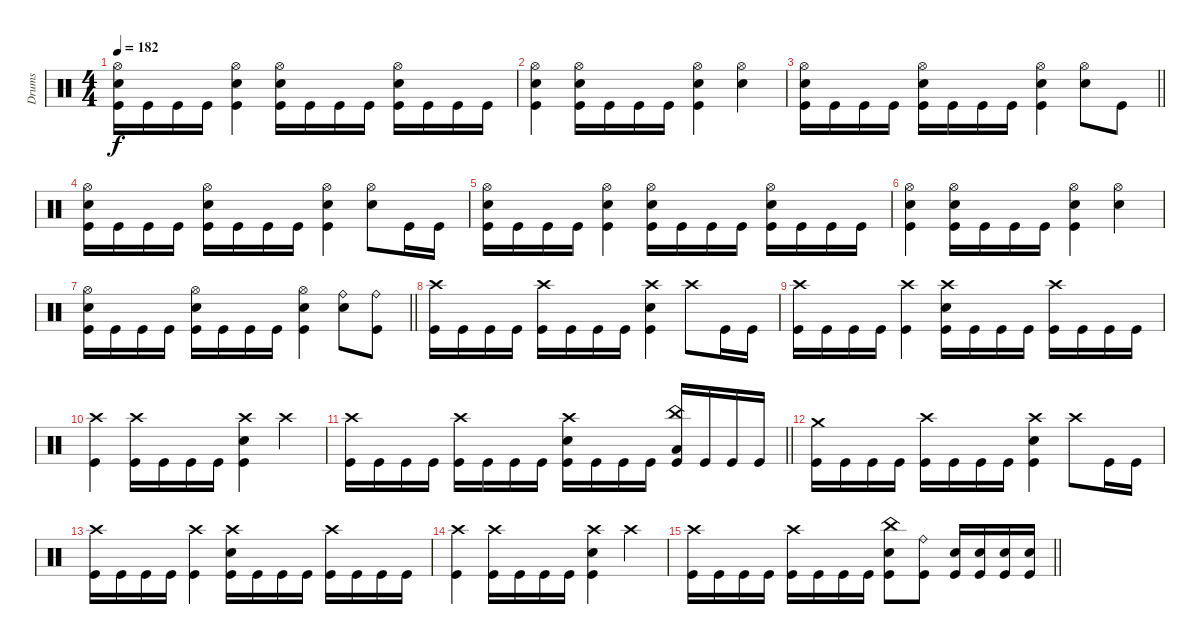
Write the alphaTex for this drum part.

\track ("Drums" "Drums") {instrument percussion}
\staff
\articulation defaults
\ts (4 4)
\tempo 182
\clef neutral
\ks c
("Hi-Hat (open)" "Electric Snare (hit)" "Kick (hit)").16{dy f} "Kick (hit)".16 "Kick (hit)".16 "Kick (hit)".16 ("Hi-Hat (open)" "Electric Snare (hit)" "Kick (hit)").4 ("Hi-Hat (open)" "Electric Snare (hit)" "Kick (hit)").16 "Kick (hit)".16 "Kick (hit)".16 "Kick (hit)".16 ("Hi-Hat (open)" "Electric Snare (hit)" "Kick (hit)").16 "Kick (hit)".16 "Kick (hit)".16 "Kick (hit)".16 |
("Hi-Hat (open)" "Electric Snare (hit)" "Kick (hit)").4 ("Hi-Hat (open)" "Electric Snare (hit)" "Kick (hit)").16 "Kick (hit)".16 "Kick (hit)".16 "Kick (hit)".16 ("Hi-Hat (open)" "Electric Snare (hit)" "Kick (hit)").4 ("Hi-Hat (open)" "Electric Snare (hit)").4 |
\barLineRight lightlight
("Hi-Hat (open)" "Electric Snare (hit)" "Kick (hit)").16 "Kick (hit)".16 "Kick (hit)".16 "Kick (hit)".16 ("Hi-Hat (open)" "Electric Snare (hit)" "Kick (hit)").16 "Kick (hit)".16 "Kick (hit)".16 "Kick (hit)".16 ("Hi-Hat (open)" "Electric Snare (hit)" "Kick (hit)").4 ("Hi-Hat (open)" "Electric Snare (hit)").8 "Kick (hit)".8 |
("Hi-Hat (open)" "Electric Snare (hit)" "Kick (hit)").16 "Kick (hit)".16 "Kick (hit)".16 "Kick (hit)".16 ("Hi-Hat (open)" "Electric Snare (hit)" "Kick (hit)").16 "Kick (hit)".16 "Kick (hit)".16 "Kick (hit)".16 ("Hi-Hat (open)" "Electric Snare (hit)" "Kick (hit)").4 ("Hi-Hat (open)" "Electric Snare (hit)").8 "Kick (hit)".16 "Kick (hit)".16 |
("Hi-Hat (open)" "Electric Snare (hit)" "Kick (hit)").16 "Kick (hit)".16 "Kick (hit)".16 "Kick (hit)".16 ("Hi-Hat (open)" "Electric Snare (hit)" "Kick (hit)").4 ("Hi-Hat (open)" "Electric Snare (hit)" "Kick (hit)").16 "Kick (hit)".16 "Kick (hit)".16 "Kick (hit)".16 ("Hi-Hat (open)" "Electric Snare (hit)" "Kick (hit)").16 "Kick (hit)".16 "Kick (hit)".16 "Kick (hit)".16 |
("Hi-Hat (open)" "Electric Snare (hit)" "Kick (hit)").4 ("Hi-Hat (open)" "Electric Snare (hit)" "Kick (hit)").16 "Kick (hit)".16 "Kick (hit)".16 "Kick (hit)".16 ("Hi-Hat (open)" "Electric Snare (hit)" "Kick (hit)").4 ("Hi-Hat (open)" "Electric Snare (hit)").4 |
\barLineRight lightlight
("Hi-Hat (open)" "Electric Snare (hit)" "Kick (hit)").16 "Kick (hit)".16 "Kick (hit)".16 "Kick (hit)".16 ("Hi-Hat (open)" "Electric Snare (hit)" "Kick (hit)").16 "Kick (hit)".16 "Kick (hit)".16 "Kick (hit)".16 ("Hi-Hat (open)" "Electric Snare (hit)" "Kick (hit)").4 ("Ride (bell)" "Electric Snare (hit)").8 ("Ride (bell)" "Kick (hit)").8 |
("Crash high (hit)" "Kick (hit)").16 "Kick (hit)".16 "Kick (hit)".16 "Kick (hit)".16 ("Crash high (hit)" "Kick (hit)").16 "Kick (hit)".16 "Kick (hit)".16 "Kick (hit)".16 ("Crash high (hit)" "Electric Snare (hit)" "Kick (hit)").4 "Crash high (hit)".8 "Kick (hit)".16 "Kick (hit)".16 |
("Crash high (hit)" "Kick (hit)").16 "Kick (hit)".16 "Kick (hit)".16 "Kick (hit)".16 ("Crash high (hit)" "Kick (hit)").4 ("Crash high (hit)" "Electric Snare (hit)" "Kick (hit)").16 "Kick (hit)".16 "Kick (hit)".16 "Kick (hit)".16 ("Crash high (hit)" "Kick (hit)").16 "Kick (hit)".16 "Kick (hit)".16 "Kick (hit)".16 |
("Crash high (hit)" "Kick (hit)").4 ("Crash high (hit)" "Kick (hit)").16 "Kick (hit)".16 "Kick (hit)".16 "Kick (hit)".16 ("Crash high (hit)" "Electric Snare (hit)" "Kick (hit)").4 "Crash high (hit)".4 |
\barLineRight lightlight
("Crash high (hit)" "Kick (hit)").16 "Kick (hit)".16 "Kick (hit)".16 "Kick (hit)".16 ("Crash high (hit)" "Kick (hit)").16 "Kick (hit)".16 "Kick (hit)".16 "Kick (hit)".16 ("Crash high (hit)" "Electric Snare (hit)" "Kick (hit)").16 "Kick (hit)".16 "Kick (hit)".16 "Kick (hit)".16 ("China (hit)" "Low Floor Tom (hit)" "Kick (hit)").16 "Kick (hit)".16 "Kick (hit)".16 "Kick (hit)".16 |
("Crash medium (hit)" "Kick (hit)").16 "Kick (hit)".16 "Kick (hit)".16 "Kick (hit)".16 ("Crash high (hit)" "Kick (hit)").16 "Kick (hit)".16 "Kick (hit)".16 "Kick (hit)".16 ("Crash high (hit)" "Electric Snare (hit)" "Kick (hit)").4 "Crash high (hit)".8 "Kick (hit)".16 "Kick (hit)".16 |
("Crash high (hit)" "Kick (hit)").16 "Kick (hit)".16 "Kick (hit)".16 "Kick (hit)".16 ("Crash high (hit)" "Kick (hit)").4 ("Crash high (hit)" "Electric Snare (hit)" "Kick (hit)").16 "Kick (hit)".16 "Kick (hit)".16 "Kick (hit)".16 ("Crash high (hit)" "Kick (hit)").16 "Kick (hit)".16 "Kick (hit)".16 "Kick (hit)".16 |
("Crash high (hit)" "Kick (hit)").4 ("Crash high (hit)" "Kick (hit)").16 "Kick (hit)".16 "Kick (hit)".16 "Kick (hit)".16 ("Crash high (hit)" "Electric Snare (hit)" "Kick (hit)").4 "Crash high (hit)".4 |
\barLineRight lightlight
("Crash high (hit)" "Kick (hit)").16 "Kick (hit)".16 "Kick (hit)".16 "Kick (hit)".16 ("Crash high (hit)" "Kick (hit)").16 "Kick (hit)".16 "Kick (hit)".16 "Kick (hit)".16 ("China (hit)" "Electric Snare (hit)" "Kick (hit)").8 ("Ride (bell)" "Kick (hit)").8 ("Electric Snare (hit)" "Kick (hit)").16 ("Electric Snare (hit)" "Kick (hit)").16 ("Electric Snare (hit)" "Kick (hit)").16 ("Electric Snare (hit)" "Kick (hit)").16
